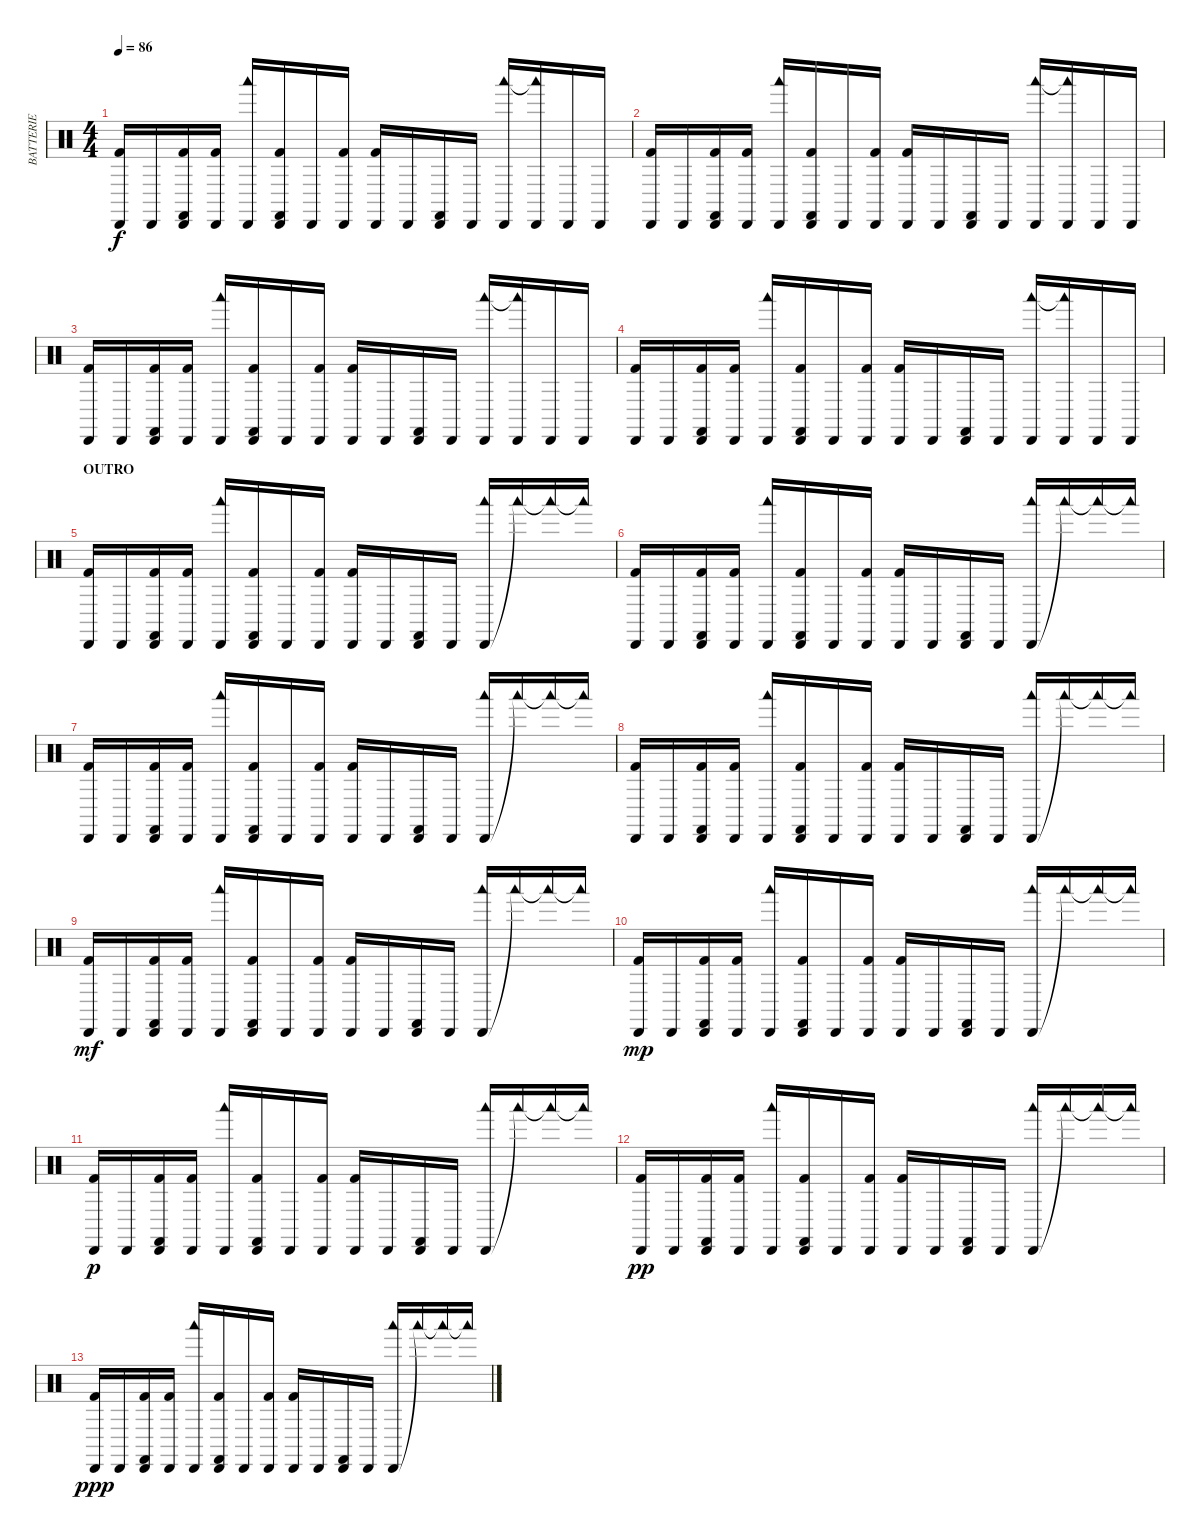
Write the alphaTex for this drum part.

\track ("BATTERIE" "BATTERIE") {instrument percussion}
\staff {score}
\articulation defaults
\ts (4 4)
\tempo 86
\clef neutral
\ks c
("Cabasa (hit)" "Kick (hit) 2").16{dy f} "Cabasa (hit)".16 ("Cabasa (hit)" "Castanets (hit)" "Kick (hit) 2").16 ("Cabasa (hit)" "Kick (hit) 2").16 ("Cabasa (hit)" "Woodblock low (hit)").16 ("Cabasa (hit)" "Castanets (hit)" "Kick (hit) 2").16 "Cabasa (hit)".16 ("Cabasa (hit)" "Kick (hit) 2").16 ("Cabasa (hit)" "Kick (hit) 2").16 "Cabasa (hit)".16 ("Cabasa (hit)" "Castanets (hit)").16 "Cabasa (hit)".16 ("Cabasa (hit)" "Woodblock low (hit)").16 ("Cabasa (hit)" "Woodblock low (hit)"{t}).16 "Cabasa (hit)".16 "Cabasa (hit)".16 |
("Cabasa (hit)" "Kick (hit) 2").16 "Cabasa (hit)".16 ("Cabasa (hit)" "Castanets (hit)" "Kick (hit) 2").16 ("Cabasa (hit)" "Kick (hit) 2").16 ("Cabasa (hit)" "Woodblock low (hit)").16 ("Cabasa (hit)" "Castanets (hit)" "Kick (hit) 2").16 "Cabasa (hit)".16 ("Cabasa (hit)" "Kick (hit) 2").16 ("Cabasa (hit)" "Kick (hit) 2").16 "Cabasa (hit)".16 ("Cabasa (hit)" "Castanets (hit)").16 "Cabasa (hit)".16 ("Cabasa (hit)" "Woodblock low (hit)").16 ("Cabasa (hit)" "Woodblock low (hit)"{t}).16 "Cabasa (hit)".16 "Cabasa (hit)".16 |
("Cabasa (hit)" "Kick (hit) 2").16 "Cabasa (hit)".16 ("Cabasa (hit)" "Castanets (hit)" "Kick (hit) 2").16 ("Cabasa (hit)" "Kick (hit) 2").16 ("Cabasa (hit)" "Woodblock low (hit)").16 ("Cabasa (hit)" "Castanets (hit)" "Kick (hit) 2").16 "Cabasa (hit)".16 ("Cabasa (hit)" "Kick (hit) 2").16 ("Cabasa (hit)" "Kick (hit) 2").16 "Cabasa (hit)".16 ("Cabasa (hit)" "Castanets (hit)").16 "Cabasa (hit)".16 ("Cabasa (hit)" "Woodblock low (hit)").16 ("Cabasa (hit)" "Woodblock low (hit)"{t}).16 "Cabasa (hit)".16 "Cabasa (hit)".16 |
("Cabasa (hit)" "Kick (hit) 2").16 "Cabasa (hit)".16 ("Cabasa (hit)" "Castanets (hit)" "Kick (hit) 2").16 ("Cabasa (hit)" "Kick (hit) 2").16 ("Cabasa (hit)" "Woodblock low (hit)").16 ("Cabasa (hit)" "Castanets (hit)" "Kick (hit) 2").16 "Cabasa (hit)".16 ("Cabasa (hit)" "Kick (hit) 2").16 ("Cabasa (hit)" "Kick (hit) 2").16 "Cabasa (hit)".16 ("Cabasa (hit)" "Castanets (hit)").16 "Cabasa (hit)".16 ("Cabasa (hit)" "Woodblock low (hit)").16 ("Cabasa (hit)" "Woodblock low (hit)"{t}).16 "Cabasa (hit)".16 "Cabasa (hit)".16 |
\section ("" "OUTRO")
("Cabasa (hit)" "Kick (hit) 2").16 "Cabasa (hit)".16 ("Cabasa (hit)" "Castanets (hit)" "Kick (hit) 2").16 ("Cabasa (hit)" "Kick (hit) 2").16 ("Cabasa (hit)" "Woodblock low (hit)").16 ("Cabasa (hit)" "Castanets (hit)" "Kick (hit) 2").16 "Cabasa (hit)".16 ("Cabasa (hit)" "Kick (hit) 2").16 ("Cabasa (hit)" "Kick (hit) 2").16 "Cabasa (hit)".16 ("Cabasa (hit)" "Castanets (hit)").16 "Cabasa (hit)".16 ("Cabasa (hit)" "Woodblock low (hit)").16 "Woodblock low (hit)"{t}.16 "Woodblock low (hit)"{t}.16 "Woodblock low (hit)"{t}.16 |
("Cabasa (hit)" "Kick (hit) 2").16 "Cabasa (hit)".16 ("Cabasa (hit)" "Castanets (hit)" "Kick (hit) 2").16 ("Cabasa (hit)" "Kick (hit) 2").16 ("Cabasa (hit)" "Woodblock low (hit)").16 ("Cabasa (hit)" "Castanets (hit)" "Kick (hit) 2").16 "Cabasa (hit)".16 ("Cabasa (hit)" "Kick (hit) 2").16 ("Cabasa (hit)" "Kick (hit) 2").16 "Cabasa (hit)".16 ("Cabasa (hit)" "Castanets (hit)").16 "Cabasa (hit)".16 ("Cabasa (hit)" "Woodblock low (hit)").16 "Woodblock low (hit)"{t}.16 "Woodblock low (hit)"{t}.16 "Woodblock low (hit)"{t}.16 |
("Cabasa (hit)" "Kick (hit) 2").16 "Cabasa (hit)".16 ("Cabasa (hit)" "Castanets (hit)" "Kick (hit) 2").16 ("Cabasa (hit)" "Kick (hit) 2").16 ("Cabasa (hit)" "Woodblock low (hit)").16 ("Cabasa (hit)" "Castanets (hit)" "Kick (hit) 2").16 "Cabasa (hit)".16 ("Cabasa (hit)" "Kick (hit) 2").16 ("Cabasa (hit)" "Kick (hit) 2").16 "Cabasa (hit)".16 ("Cabasa (hit)" "Castanets (hit)").16 "Cabasa (hit)".16 ("Cabasa (hit)" "Woodblock low (hit)").16 "Woodblock low (hit)"{t}.16 "Woodblock low (hit)"{t}.16 "Woodblock low (hit)"{t}.16 |
("Cabasa (hit)" "Kick (hit) 2").16 "Cabasa (hit)".16 ("Cabasa (hit)" "Castanets (hit)" "Kick (hit) 2").16 ("Cabasa (hit)" "Kick (hit) 2").16 ("Cabasa (hit)" "Woodblock low (hit)").16 ("Cabasa (hit)" "Castanets (hit)" "Kick (hit) 2").16 "Cabasa (hit)".16 ("Cabasa (hit)" "Kick (hit) 2").16 ("Cabasa (hit)" "Kick (hit) 2").16 "Cabasa (hit)".16 ("Cabasa (hit)" "Castanets (hit)").16 "Cabasa (hit)".16 ("Cabasa (hit)" "Woodblock low (hit)").16 "Woodblock low (hit)"{t}.16 "Woodblock low (hit)"{t}.16 "Woodblock low (hit)"{t}.16 |
("Cabasa (hit)" "Kick (hit) 2").16{dy mf} "Cabasa (hit)".16 ("Cabasa (hit)" "Castanets (hit)" "Kick (hit) 2").16 ("Cabasa (hit)" "Kick (hit) 2").16 ("Cabasa (hit)" "Woodblock low (hit)").16 ("Cabasa (hit)" "Castanets (hit)" "Kick (hit) 2").16 "Cabasa (hit)".16 ("Cabasa (hit)" "Kick (hit) 2").16 ("Cabasa (hit)" "Kick (hit) 2").16 "Cabasa (hit)".16 ("Cabasa (hit)" "Castanets (hit)").16 "Cabasa (hit)".16 ("Cabasa (hit)" "Woodblock low (hit)").16 "Woodblock low (hit)"{t}.16 "Woodblock low (hit)"{t}.16 "Woodblock low (hit)"{t}.16 |
("Cabasa (hit)" "Kick (hit) 2").16{dy mp} "Cabasa (hit)".16 ("Cabasa (hit)" "Castanets (hit)" "Kick (hit) 2").16 ("Cabasa (hit)" "Kick (hit) 2").16 ("Cabasa (hit)" "Woodblock low (hit)").16 ("Cabasa (hit)" "Castanets (hit)" "Kick (hit) 2").16 "Cabasa (hit)".16 ("Cabasa (hit)" "Kick (hit) 2").16 ("Cabasa (hit)" "Kick (hit) 2").16 "Cabasa (hit)".16 ("Cabasa (hit)" "Castanets (hit)").16 "Cabasa (hit)".16 ("Cabasa (hit)" "Woodblock low (hit)").16 "Woodblock low (hit)"{t}.16 "Woodblock low (hit)"{t}.16 "Woodblock low (hit)"{t}.16 |
("Cabasa (hit)" "Kick (hit) 2").16{dy p} "Cabasa (hit)".16 ("Cabasa (hit)" "Castanets (hit)" "Kick (hit) 2").16 ("Cabasa (hit)" "Kick (hit) 2").16 ("Cabasa (hit)" "Woodblock low (hit)").16 ("Cabasa (hit)" "Castanets (hit)" "Kick (hit) 2").16 "Cabasa (hit)".16 ("Cabasa (hit)" "Kick (hit) 2").16 ("Cabasa (hit)" "Kick (hit) 2").16 "Cabasa (hit)".16 ("Cabasa (hit)" "Castanets (hit)").16 "Cabasa (hit)".16 ("Cabasa (hit)" "Woodblock low (hit)").16 "Woodblock low (hit)"{t}.16 "Woodblock low (hit)"{t}.16 "Woodblock low (hit)"{t}.16 |
("Cabasa (hit)" "Kick (hit) 2").16{dy pp} "Cabasa (hit)".16 ("Cabasa (hit)" "Castanets (hit)" "Kick (hit) 2").16 ("Cabasa (hit)" "Kick (hit) 2").16 ("Cabasa (hit)" "Woodblock low (hit)").16 ("Cabasa (hit)" "Castanets (hit)" "Kick (hit) 2").16 "Cabasa (hit)".16 ("Cabasa (hit)" "Kick (hit) 2").16 ("Cabasa (hit)" "Kick (hit) 2").16 "Cabasa (hit)".16 ("Cabasa (hit)" "Castanets (hit)").16 "Cabasa (hit)".16 ("Cabasa (hit)" "Woodblock low (hit)").16 "Woodblock low (hit)"{t}.16 "Woodblock low (hit)"{t}.16 "Woodblock low (hit)"{t}.16 |
("Cabasa (hit)" "Kick (hit) 2").16{dy ppp} "Cabasa (hit)".16 ("Cabasa (hit)" "Castanets (hit)" "Kick (hit) 2").16 ("Cabasa (hit)" "Kick (hit) 2").16 ("Cabasa (hit)" "Woodblock low (hit)").16 ("Cabasa (hit)" "Castanets (hit)" "Kick (hit) 2").16 "Cabasa (hit)".16 ("Cabasa (hit)" "Kick (hit) 2").16 ("Cabasa (hit)" "Kick (hit) 2").16 "Cabasa (hit)".16 ("Cabasa (hit)" "Castanets (hit)").16 "Cabasa (hit)".16 ("Cabasa (hit)" "Woodblock low (hit)").16 "Woodblock low (hit)"{t}.16 "Woodblock low (hit)"{t}.16 "Woodblock low (hit)"{t}.16
